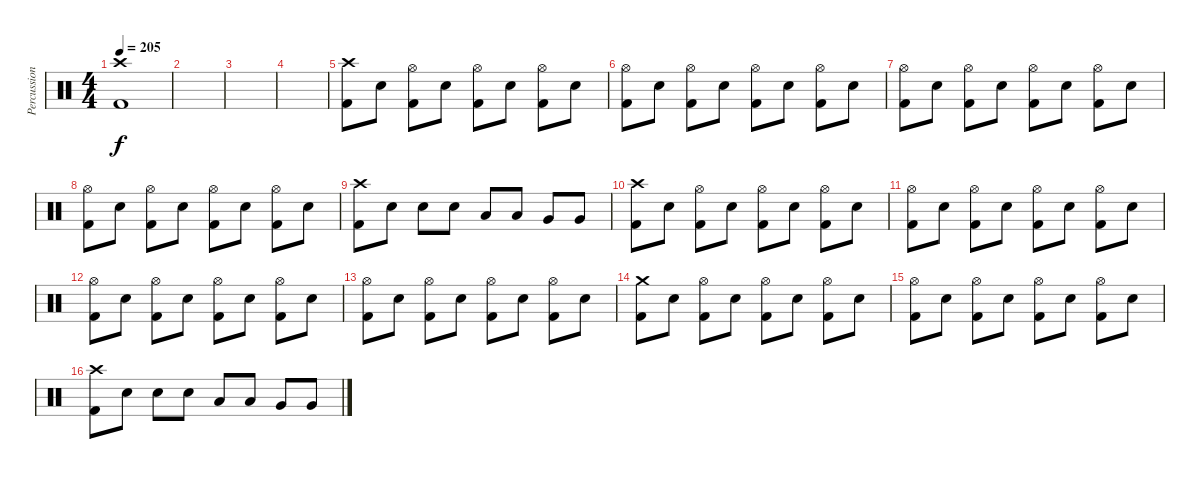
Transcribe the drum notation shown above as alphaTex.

\track ("Percussion" "Percussion") {instrument percussion}
\staff {score}
\articulation defaults
\ts (4 4)
\tempo 205
\clef neutral
\ks c
("Crash high (hit)" "Kick (hit) 2").1{dy f} |
|
|
|
("Crash high (hit)" "Kick (hit) 2").8 "Electric Snare (hit)".8 ("Hi-Hat (open)" "Kick (hit) 2").8 "Electric Snare (hit)".8 ("Hi-Hat (open)" "Kick (hit) 2").8 "Electric Snare (hit)".8 ("Hi-Hat (open)" "Kick (hit) 2").8 "Electric Snare (hit)".8 |
("Hi-Hat (open)" "Kick (hit) 2").8 "Electric Snare (hit)".8 ("Hi-Hat (open)" "Kick (hit) 2").8 "Electric Snare (hit)".8 ("Hi-Hat (open)" "Kick (hit) 2").8 "Electric Snare (hit)".8 ("Hi-Hat (open)" "Kick (hit) 2").8 "Electric Snare (hit)".8 |
("Hi-Hat (open)" "Kick (hit) 2").8 "Electric Snare (hit)".8 ("Hi-Hat (open)" "Kick (hit) 2").8 "Electric Snare (hit)".8 ("Hi-Hat (open)" "Kick (hit) 2").8 "Electric Snare (hit)".8 ("Hi-Hat (open)" "Kick (hit) 2").8 "Electric Snare (hit)".8 |
("Hi-Hat (open)" "Kick (hit) 2").8 "Electric Snare (hit)".8 ("Hi-Hat (open)" "Kick (hit) 2").8 "Electric Snare (hit)".8 ("Hi-Hat (open)" "Kick (hit) 2").8 "Electric Snare (hit)".8 ("Hi-Hat (open)" "Kick (hit) 2").8 "Electric Snare (hit)".8 |
("Crash high (hit)" "Kick (hit) 2").8 "Electric Snare (hit)".8 "Electric Snare (hit)".8 "Electric Snare (hit)".8 "Low Tom (hit)".8 "Low Tom (hit)".8 "Very Low Tom (hit)".8 "Very Low Tom (hit)".8 |
("Crash high (hit)" "Kick (hit) 2").8 "Electric Snare (hit)".8 ("Hi-Hat (open)" "Kick (hit) 2").8 "Electric Snare (hit)".8 ("Hi-Hat (open)" "Kick (hit) 2").8 "Electric Snare (hit)".8 ("Hi-Hat (open)" "Kick (hit) 2").8 "Electric Snare (hit)".8 |
("Hi-Hat (open)" "Kick (hit) 2").8 "Electric Snare (hit)".8 ("Hi-Hat (open)" "Kick (hit) 2").8 "Electric Snare (hit)".8 ("Hi-Hat (open)" "Kick (hit) 2").8 "Electric Snare (hit)".8 ("Hi-Hat (open)" "Kick (hit) 2").8 "Electric Snare (hit)".8 |
("Hi-Hat (open)" "Kick (hit) 2").8 "Electric Snare (hit)".8 ("Hi-Hat (open)" "Kick (hit) 2").8 "Electric Snare (hit)".8 ("Hi-Hat (open)" "Kick (hit) 2").8 "Electric Snare (hit)".8 ("Hi-Hat (open)" "Kick (hit) 2").8 "Electric Snare (hit)".8 |
("Hi-Hat (open)" "Kick (hit) 2").8 "Electric Snare (hit)".8 ("Hi-Hat (open)" "Kick (hit) 2").8 "Electric Snare (hit)".8 ("Hi-Hat (open)" "Kick (hit) 2").8 "Electric Snare (hit)".8 ("Hi-Hat (open)" "Kick (hit) 2").8 "Electric Snare (hit)".8 |
("Crash medium (hit)" "Kick (hit) 2").8 "Electric Snare (hit)".8 ("Hi-Hat (open)" "Kick (hit) 2").8 "Electric Snare (hit)".8 ("Hi-Hat (open)" "Kick (hit) 2").8 "Electric Snare (hit)".8 ("Hi-Hat (open)" "Kick (hit) 2").8 "Electric Snare (hit)".8 |
("Hi-Hat (open)" "Kick (hit) 2").8 "Electric Snare (hit)".8 ("Hi-Hat (open)" "Kick (hit) 2").8 "Electric Snare (hit)".8 ("Hi-Hat (open)" "Kick (hit) 2").8 "Electric Snare (hit)".8 ("Hi-Hat (open)" "Kick (hit) 2").8 "Electric Snare (hit)".8 |
("Crash high (hit)" "Kick (hit) 2").8 "Electric Snare (hit)".8 "Electric Snare (hit)".8 "Electric Snare (hit)".8 "Low Tom (hit)".8 "Low Tom (hit)".8 "Very Low Tom (hit)".8 "Very Low Tom (hit)".8
